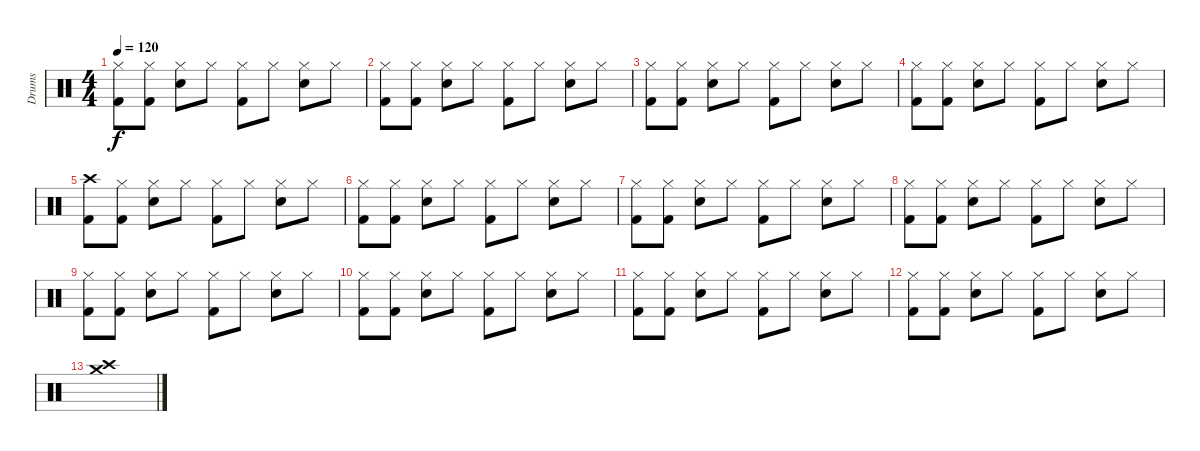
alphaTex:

\track ("Drums" "Drums") {instrument percussion}
\staff {score}
\articulation defaults
\ts (4 4)
\tempo 120
\clef neutral
\ks c
("Hi-Hat (closed)" "Kick (hit) 2").8{dy f} ("Hi-Hat (closed)" "Kick (hit) 2").8 ("Hi-Hat (closed)" "Electric Snare (hit)").8 "Hi-Hat (closed)".8 ("Hi-Hat (closed)" "Kick (hit) 2").8 "Hi-Hat (closed)".8 ("Hi-Hat (closed)" "Electric Snare (hit)").8 "Hi-Hat (closed)".8 |
("Hi-Hat (closed)" "Kick (hit) 2").8 ("Hi-Hat (closed)" "Kick (hit) 2").8 ("Hi-Hat (closed)" "Electric Snare (hit)").8 "Hi-Hat (closed)".8 ("Hi-Hat (closed)" "Kick (hit) 2").8 "Hi-Hat (closed)".8 ("Hi-Hat (closed)" "Electric Snare (hit)").8 "Hi-Hat (closed)".8 |
("Hi-Hat (closed)" "Kick (hit) 2").8 ("Hi-Hat (closed)" "Kick (hit) 2").8 ("Hi-Hat (closed)" "Electric Snare (hit)").8 "Hi-Hat (closed)".8 ("Hi-Hat (closed)" "Kick (hit) 2").8 "Hi-Hat (closed)".8 ("Hi-Hat (closed)" "Electric Snare (hit)").8 "Hi-Hat (closed)".8 |
("Hi-Hat (closed)" "Kick (hit) 2").8 ("Hi-Hat (closed)" "Kick (hit) 2").8 ("Hi-Hat (closed)" "Electric Snare (hit)").8 "Hi-Hat (closed)".8 ("Hi-Hat (closed)" "Kick (hit) 2").8 "Hi-Hat (closed)".8 ("Hi-Hat (closed)" "Electric Snare (hit)").8 "Hi-Hat (closed)".8 |
("Crash high (hit)" "Kick (hit) 2").8 ("Hi-Hat (closed)" "Kick (hit) 2").8 ("Hi-Hat (closed)" "Electric Snare (hit)").8 "Hi-Hat (closed)".8 ("Hi-Hat (closed)" "Kick (hit) 2").8 "Hi-Hat (closed)".8 ("Hi-Hat (closed)" "Electric Snare (hit)").8 "Hi-Hat (closed)".8 |
("Hi-Hat (closed)" "Kick (hit) 2").8 ("Hi-Hat (closed)" "Kick (hit) 2").8 ("Hi-Hat (closed)" "Electric Snare (hit)").8 "Hi-Hat (closed)".8 ("Hi-Hat (closed)" "Kick (hit) 2").8 "Hi-Hat (closed)".8 ("Hi-Hat (closed)" "Electric Snare (hit)").8 "Hi-Hat (closed)".8 |
("Hi-Hat (closed)" "Kick (hit) 2").8 ("Hi-Hat (closed)" "Kick (hit) 2").8 ("Hi-Hat (closed)" "Electric Snare (hit)").8 "Hi-Hat (closed)".8 ("Hi-Hat (closed)" "Kick (hit) 2").8 "Hi-Hat (closed)".8 ("Hi-Hat (closed)" "Electric Snare (hit)").8 "Hi-Hat (closed)".8 |
("Hi-Hat (closed)" "Kick (hit) 2").8 ("Hi-Hat (closed)" "Kick (hit) 2").8 ("Hi-Hat (closed)" "Electric Snare (hit)").8 "Hi-Hat (closed)".8 ("Hi-Hat (closed)" "Kick (hit) 2").8 "Hi-Hat (closed)".8 ("Hi-Hat (closed)" "Electric Snare (hit)").8 "Hi-Hat (closed)".8 |
("Hi-Hat (closed)" "Kick (hit) 2").8 ("Hi-Hat (closed)" "Kick (hit) 2").8 ("Hi-Hat (closed)" "Electric Snare (hit)").8 "Hi-Hat (closed)".8 ("Hi-Hat (closed)" "Kick (hit) 2").8 "Hi-Hat (closed)".8 ("Hi-Hat (closed)" "Electric Snare (hit)").8 "Hi-Hat (closed)".8 |
("Hi-Hat (closed)" "Kick (hit) 2").8 ("Hi-Hat (closed)" "Kick (hit) 2").8 ("Hi-Hat (closed)" "Electric Snare (hit)").8 "Hi-Hat (closed)".8 ("Hi-Hat (closed)" "Kick (hit) 2").8 "Hi-Hat (closed)".8 ("Hi-Hat (closed)" "Electric Snare (hit)").8 "Hi-Hat (closed)".8 |
("Hi-Hat (closed)" "Kick (hit) 2").8 ("Hi-Hat (closed)" "Kick (hit) 2").8 ("Hi-Hat (closed)" "Electric Snare (hit)").8 "Hi-Hat (closed)".8 ("Hi-Hat (closed)" "Kick (hit) 2").8 "Hi-Hat (closed)".8 ("Hi-Hat (closed)" "Electric Snare (hit)").8 "Hi-Hat (closed)".8 |
("Hi-Hat (closed)" "Kick (hit) 2").8 ("Hi-Hat (closed)" "Kick (hit) 2").8 ("Hi-Hat (closed)" "Electric Snare (hit)").8 "Hi-Hat (closed)".8 ("Hi-Hat (closed)" "Kick (hit) 2").8 "Hi-Hat (closed)".8 ("Hi-Hat (closed)" "Electric Snare (hit)").8 "Hi-Hat (closed)".8 |
("Crash high (hit)" "Crash medium (hit)").1
